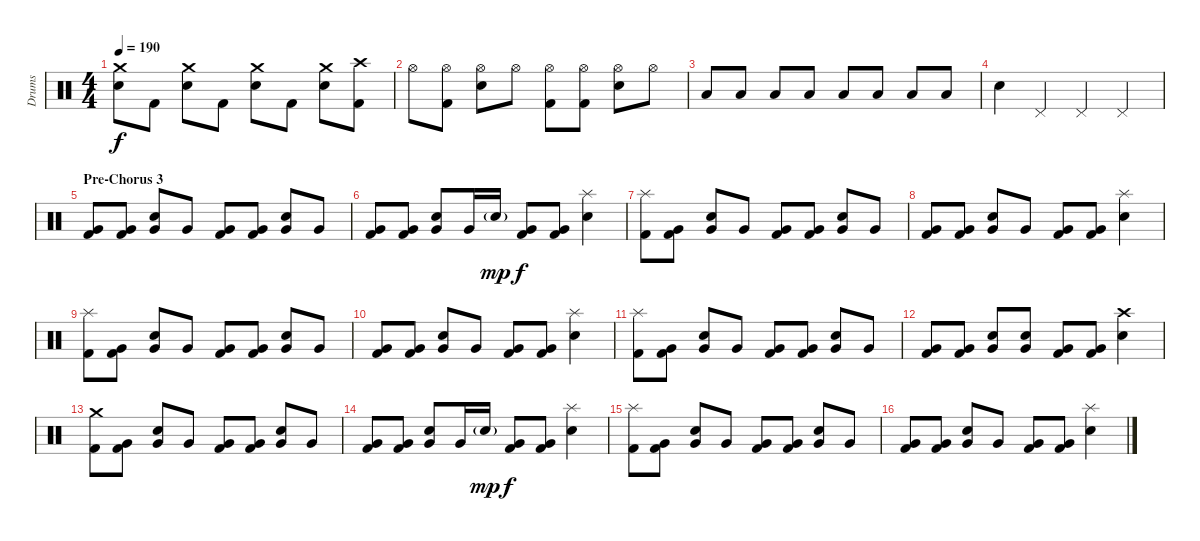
\track ("Drums" "Drums") {instrument percussion}
\staff {score}
\articulation defaults
\ts (4 4)
\tempo 190
\clef neutral
\ks c
("Crash medium (hit)" "Electric Snare (hit)").8{dy f} "Kick (hit) 2".8 ("Crash medium (hit)" "Electric Snare (hit)").8 "Kick (hit) 2".8 ("Crash medium (hit)" "Electric Snare (hit)").8 "Kick (hit) 2".8 ("Crash medium (hit)" "Electric Snare (hit)").8 ("Crash high (hit)" "Kick (hit) 2").8 |
"Hi-Hat (open)".8 ("Hi-Hat (open)" "Kick (hit) 2").8 ("Hi-Hat (open)" "Electric Snare (hit)").8 "Hi-Hat (open)".8 ("Hi-Hat (open)" "Kick (hit) 2").8 ("Hi-Hat (open)" "Kick (hit) 2").8 ("Hi-Hat (open)" "Electric Snare (hit)").8 "Hi-Hat (open)".8 |
"Low Tom (hit)".8 "Low Tom (hit)".8 "Low Tom (hit)".8 "Low Tom (hit)".8 "Low Tom (hit)".8 "Low Tom (hit)".8 "Low Tom (hit)".8 "Low Tom (hit)".8 |
"Electric Snare (hit)".4 "Pedal Hi-Hat (hit)".4 "Pedal Hi-Hat (hit)".4 "Pedal Hi-Hat (hit)".4 |
\section ("" "Pre-Chorus 3")
("Very Low Tom (hit)" "Kick (hit) 2").8 ("Very Low Tom (hit)" "Kick (hit) 2").8 ("Electric Snare (hit)" "Very Low Tom (hit)").8 "Very Low Tom (hit)".8 ("Very Low Tom (hit)" "Kick (hit) 2").8 ("Very Low Tom (hit)" "Kick (hit) 2").8 ("Electric Snare (hit)" "Very Low Tom (hit)").8 "Very Low Tom (hit)".8 |
("Very Low Tom (hit)" "Kick (hit) 2").8 ("Very Low Tom (hit)" "Kick (hit) 2").8 ("Electric Snare (hit)" "Very Low Tom (hit)").8 "Very Low Tom (hit)".16 "Electric Snare (hit)"{g}.16{dy mp} ("Very Low Tom (hit)" "Kick (hit) 2").8{dy f} ("Very Low Tom (hit)" "Kick (hit) 2").8 ("Splash (hit)" "Electric Snare (hit)").4 |
("Splash (hit)" "Kick (hit) 2").8 ("Very Low Tom (hit)" "Kick (hit) 2").8 ("Electric Snare (hit)" "Very Low Tom (hit)").8 "Very Low Tom (hit)".8 ("Very Low Tom (hit)" "Kick (hit) 2").8 ("Very Low Tom (hit)" "Kick (hit) 2").8 ("Electric Snare (hit)" "Very Low Tom (hit)").8 "Very Low Tom (hit)".8 |
("Very Low Tom (hit)" "Kick (hit) 2").8 ("Very Low Tom (hit)" "Kick (hit) 2").8 ("Electric Snare (hit)" "Very Low Tom (hit)").8 "Very Low Tom (hit)".8 ("Very Low Tom (hit)" "Kick (hit) 2").8 ("Very Low Tom (hit)" "Kick (hit) 2").8 ("Splash (hit)" "Electric Snare (hit)").4 |
("Splash (hit)" "Kick (hit) 2").8 ("Very Low Tom (hit)" "Kick (hit) 2").8 ("Electric Snare (hit)" "Very Low Tom (hit)").8 "Very Low Tom (hit)".8 ("Very Low Tom (hit)" "Kick (hit) 2").8 ("Very Low Tom (hit)" "Kick (hit) 2").8 ("Electric Snare (hit)" "Very Low Tom (hit)").8 "Very Low Tom (hit)".8 |
("Very Low Tom (hit)" "Kick (hit) 2").8 ("Very Low Tom (hit)" "Kick (hit) 2").8 ("Electric Snare (hit)" "Very Low Tom (hit)").8 "Very Low Tom (hit)".8 ("Very Low Tom (hit)" "Kick (hit) 2").8 ("Very Low Tom (hit)" "Kick (hit) 2").8 ("Splash (hit)" "Electric Snare (hit)").4 |
("Splash (hit)" "Kick (hit) 2").8 ("Very Low Tom (hit)" "Kick (hit) 2").8 ("Electric Snare (hit)" "Very Low Tom (hit)").8 "Very Low Tom (hit)".8 ("Very Low Tom (hit)" "Kick (hit) 2").8 ("Very Low Tom (hit)" "Kick (hit) 2").8 ("Electric Snare (hit)" "Very Low Tom (hit)").8 "Very Low Tom (hit)".8 |
("Very Low Tom (hit)" "Kick (hit) 2").8 ("Very Low Tom (hit)" "Kick (hit) 2").8 ("Electric Snare (hit)" "Very Low Tom (hit)").8 ("Electric Snare (hit)" "Very Low Tom (hit)").8 ("Very Low Tom (hit)" "Kick (hit) 2").8 ("Very Low Tom (hit)" "Kick (hit) 2").8 ("Crash high (hit)" "Electric Snare (hit)").4 |
("Crash medium (hit)" "Kick (hit) 2").8 ("Very Low Tom (hit)" "Kick (hit) 2").8 ("Electric Snare (hit)" "Very Low Tom (hit)").8 "Very Low Tom (hit)".8 ("Very Low Tom (hit)" "Kick (hit) 2").8 ("Very Low Tom (hit)" "Kick (hit) 2").8 ("Electric Snare (hit)" "Very Low Tom (hit)").8 "Very Low Tom (hit)".8 |
("Very Low Tom (hit)" "Kick (hit) 2").8 ("Very Low Tom (hit)" "Kick (hit) 2").8 ("Electric Snare (hit)" "Very Low Tom (hit)").8 "Very Low Tom (hit)".16 "Electric Snare (hit)"{g}.16{dy mp} ("Very Low Tom (hit)" "Kick (hit) 2").8{dy f} ("Very Low Tom (hit)" "Kick (hit) 2").8 ("Splash (hit)" "Electric Snare (hit)").4 |
("Splash (hit)" "Kick (hit) 2").8 ("Very Low Tom (hit)" "Kick (hit) 2").8 ("Electric Snare (hit)" "Very Low Tom (hit)").8 "Very Low Tom (hit)".8 ("Very Low Tom (hit)" "Kick (hit) 2").8 ("Very Low Tom (hit)" "Kick (hit) 2").8 ("Electric Snare (hit)" "Very Low Tom (hit)").8 "Very Low Tom (hit)".8 |
("Very Low Tom (hit)" "Kick (hit) 2").8 ("Very Low Tom (hit)" "Kick (hit) 2").8 ("Electric Snare (hit)" "Very Low Tom (hit)").8 "Very Low Tom (hit)".8 ("Very Low Tom (hit)" "Kick (hit) 2").8 ("Very Low Tom (hit)" "Kick (hit) 2").8 ("Splash (hit)" "Electric Snare (hit)").4
